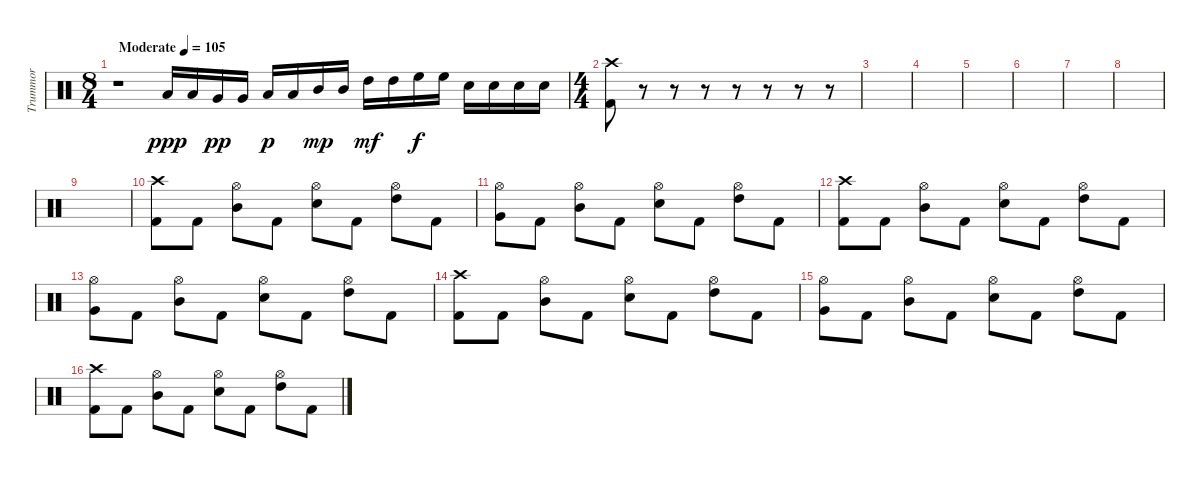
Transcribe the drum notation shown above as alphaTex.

\track ("Trummor" "Trummor") {instrument percussion}
\staff {score}
\articulation defaults
\ts (8 4)
\tempo (105 "Moderate")
\clef neutral
\ks c
r.1{dy ppp} "Low Floor Tom (hit)".16 "Low Floor Tom (hit)".16 "Very Low Tom (hit)".16{dy pp} "Very Low Tom (hit)".16 "Low Tom (hit)".16{dy p} "Low Tom (hit)".16 "Mid Tom (hit)".16{dy mp} "Mid Tom (hit)".16 "High Tom (hit)".16{dy mf} "High Tom (hit)".16 "High Floor Tom (hit)".16{dy f} "High Floor Tom (hit)".16 "Snare (hit) 2".16 "Snare (hit) 2".16 "Snare (hit) 2".16 "Snare (hit) 2".16 |
\ts (4 4)
("Crash high (hit)" "Kick (hit) 2").8 r.8 r.8 r.8 r.8 r.8 r.8 r.8 |
|
|
|
|
|
|
|
("Crash high (hit)" "Kick (hit) 2").8 "Kick (hit) 2".8 ("Hi-Hat (open)" "Mid Tom (hit)").8 "Kick (hit) 2".8 ("Hi-Hat (open)" "Snare (hit) 2").8 "Kick (hit) 2".8 ("Hi-Hat (open)" "High Tom (hit)").8 "Kick (hit) 2".8 |
("Hi-Hat (open)" "Very Low Tom (hit)").8 "Kick (hit) 2".8 ("Hi-Hat (open)" "Mid Tom (hit)").8 "Kick (hit) 2".8 ("Hi-Hat (open)" "Snare (hit) 2").8 "Kick (hit) 2".8 ("Hi-Hat (open)" "High Tom (hit)").8 "Kick (hit) 2".8 |
("Crash high (hit)" "Kick (hit) 2").8 "Kick (hit) 2".8 ("Hi-Hat (open)" "Mid Tom (hit)").8 "Kick (hit) 2".8 ("Hi-Hat (open)" "Snare (hit) 2").8 "Kick (hit) 2".8 ("Hi-Hat (open)" "High Tom (hit)").8 "Kick (hit) 2".8 |
("Hi-Hat (open)" "Very Low Tom (hit)").8 "Kick (hit) 2".8 ("Hi-Hat (open)" "Mid Tom (hit)").8 "Kick (hit) 2".8 ("Hi-Hat (open)" "Snare (hit) 2").8 "Kick (hit) 2".8 ("Hi-Hat (open)" "High Tom (hit)").8 "Kick (hit) 2".8 |
("Crash high (hit)" "Kick (hit) 2").8 "Kick (hit) 2".8 ("Hi-Hat (open)" "Mid Tom (hit)").8 "Kick (hit) 2".8 ("Hi-Hat (open)" "Snare (hit) 2").8 "Kick (hit) 2".8 ("Hi-Hat (open)" "High Tom (hit)").8 "Kick (hit) 2".8 |
("Hi-Hat (open)" "Very Low Tom (hit)").8 "Kick (hit) 2".8 ("Hi-Hat (open)" "Mid Tom (hit)").8 "Kick (hit) 2".8 ("Hi-Hat (open)" "Snare (hit) 2").8 "Kick (hit) 2".8 ("Hi-Hat (open)" "High Tom (hit)").8 "Kick (hit) 2".8 |
("Crash high (hit)" "Kick (hit) 2").8 "Kick (hit) 2".8 ("Hi-Hat (open)" "Mid Tom (hit)").8 "Kick (hit) 2".8 ("Hi-Hat (open)" "Snare (hit) 2").8 "Kick (hit) 2".8 ("Hi-Hat (open)" "High Tom (hit)").8 "Kick (hit) 2".8
